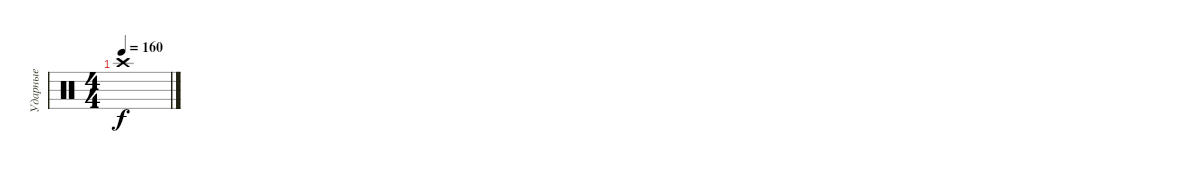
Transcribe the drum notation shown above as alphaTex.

\track ("Ударные" "Ударные") {instrument percussion}
\staff {score}
\articulation defaults
\ts (4 4)
\tempo 160
\clef neutral
\ks c "Crash high (hit)".1{dy f}
